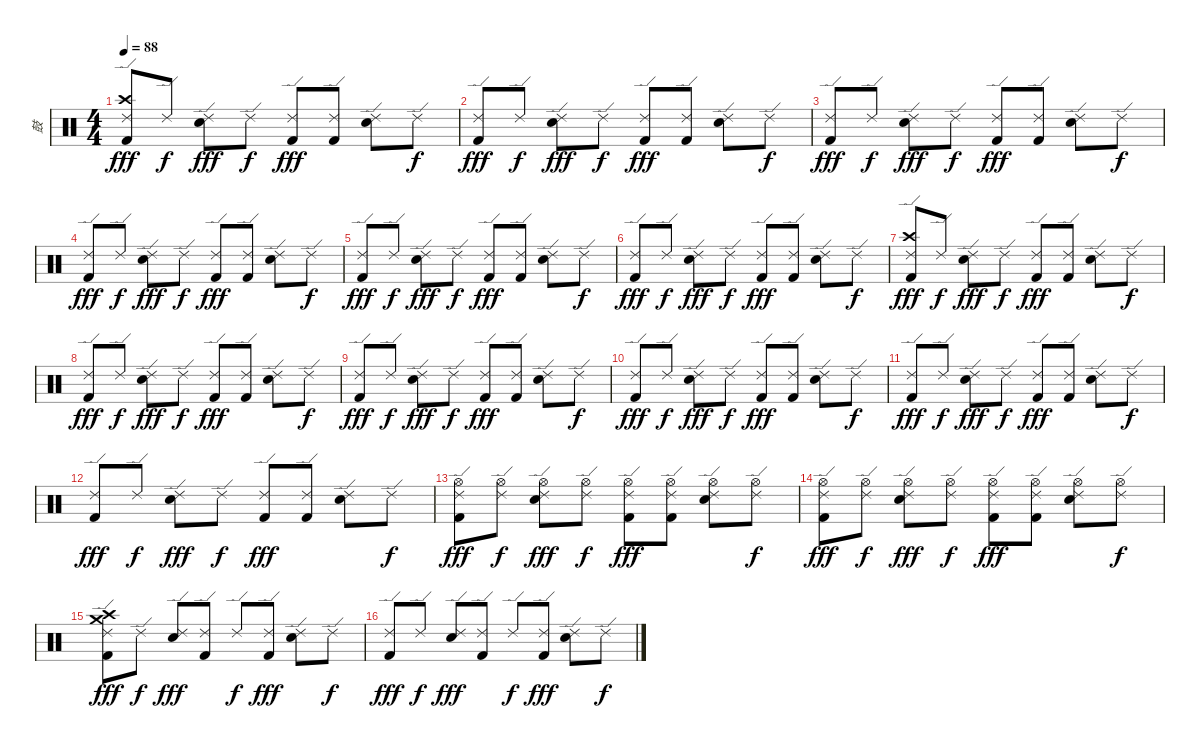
\track ("鼓" "鼓") {instrument percussion}
\staff {score}
\articulation defaults
\ts (4 4)
\tempo 88
\clef neutral
\ks c
("Ride (edge) 2" "Crash high (hit)" "Kick (hit) 2").8{dy fff} "Ride (edge) 2".8{dy f} ("Ride (edge) 2" "Snare (hit) 2").8{dy fff} "Ride (edge) 2".8{dy f} ("Ride (edge) 2" "Kick (hit) 2").8{dy fff} ("Ride (edge) 2" "Kick (hit) 2").8 ("Ride (edge) 2" "Snare (hit) 2").8 "Ride (edge) 2".8{dy f} |
("Ride (edge) 2" "Kick (hit) 2").8{dy fff} "Ride (edge) 2".8{dy f} ("Ride (edge) 2" "Snare (hit) 2").8{dy fff} "Ride (edge) 2".8{dy f} ("Ride (edge) 2" "Kick (hit) 2").8{dy fff} ("Ride (edge) 2" "Kick (hit) 2").8 ("Ride (edge) 2" "Snare (hit) 2").8 "Ride (edge) 2".8{dy f} |
("Ride (edge) 2" "Kick (hit) 2").8{dy fff} "Ride (edge) 2".8{dy f} ("Ride (edge) 2" "Snare (hit) 2").8{dy fff} "Ride (edge) 2".8{dy f} ("Ride (edge) 2" "Kick (hit) 2").8{dy fff} ("Ride (edge) 2" "Kick (hit) 2").8 ("Ride (edge) 2" "Snare (hit) 2").8 "Ride (edge) 2".8{dy f} |
("Ride (edge) 2" "Kick (hit) 2").8{dy fff} "Ride (edge) 2".8{dy f} ("Ride (edge) 2" "Snare (hit) 2").8{dy fff} "Ride (edge) 2".8{dy f} ("Ride (edge) 2" "Kick (hit) 2").8{dy fff} ("Ride (edge) 2" "Kick (hit) 2").8 ("Ride (edge) 2" "Snare (hit) 2").8 "Ride (edge) 2".8{dy f} |
("Ride (edge) 2" "Kick (hit) 2").8{dy fff} "Ride (edge) 2".8{dy f} ("Ride (edge) 2" "Snare (hit) 2").8{dy fff} "Ride (edge) 2".8{dy f} ("Ride (edge) 2" "Kick (hit) 2").8{dy fff} ("Ride (edge) 2" "Kick (hit) 2").8 ("Ride (edge) 2" "Snare (hit) 2").8 "Ride (edge) 2".8{dy f} |
("Ride (edge) 2" "Kick (hit) 2").8{dy fff} "Ride (edge) 2".8{dy f} ("Ride (edge) 2" "Snare (hit) 2").8{dy fff} "Ride (edge) 2".8{dy f} ("Ride (edge) 2" "Kick (hit) 2").8{dy fff} ("Ride (edge) 2" "Kick (hit) 2").8 ("Ride (edge) 2" "Snare (hit) 2").8 "Ride (edge) 2".8{dy f} |
("Ride (edge) 2" "Crash high (hit)" "Kick (hit) 2").8{dy fff} "Ride (edge) 2".8{dy f} ("Ride (edge) 2" "Snare (hit) 2").8{dy fff} "Ride (edge) 2".8{dy f} ("Ride (edge) 2" "Kick (hit) 2").8{dy fff} ("Ride (edge) 2" "Kick (hit) 2").8 ("Ride (edge) 2" "Snare (hit) 2").8 "Ride (edge) 2".8{dy f} |
("Ride (edge) 2" "Kick (hit) 2").8{dy fff} "Ride (edge) 2".8{dy f} ("Ride (edge) 2" "Snare (hit) 2").8{dy fff} "Ride (edge) 2".8{dy f} ("Ride (edge) 2" "Kick (hit) 2").8{dy fff} ("Ride (edge) 2" "Kick (hit) 2").8 ("Ride (edge) 2" "Snare (hit) 2").8 "Ride (edge) 2".8{dy f} |
("Ride (edge) 2" "Kick (hit) 2").8{dy fff} "Ride (edge) 2".8{dy f} ("Ride (edge) 2" "Snare (hit) 2").8{dy fff} "Ride (edge) 2".8{dy f} ("Ride (edge) 2" "Kick (hit) 2").8{dy fff} ("Ride (edge) 2" "Kick (hit) 2").8 ("Ride (edge) 2" "Snare (hit) 2").8 "Ride (edge) 2".8{dy f} |
("Ride (edge) 2" "Kick (hit) 2").8{dy fff} "Ride (edge) 2".8{dy f} ("Ride (edge) 2" "Snare (hit) 2").8{dy fff} "Ride (edge) 2".8{dy f} ("Ride (edge) 2" "Kick (hit) 2").8{dy fff} ("Ride (edge) 2" "Kick (hit) 2").8 ("Ride (edge) 2" "Snare (hit) 2").8 "Ride (edge) 2".8{dy f} |
("Ride (edge) 2" "Kick (hit) 2").8{dy fff} "Ride (edge) 2".8{dy f} ("Ride (edge) 2" "Snare (hit) 2").8{dy fff} "Ride (edge) 2".8{dy f} ("Ride (edge) 2" "Kick (hit) 2").8{dy fff} ("Ride (edge) 2" "Kick (hit) 2").8 ("Ride (edge) 2" "Snare (hit) 2").8 "Ride (edge) 2".8{dy f} |
("Ride (edge) 2" "Kick (hit) 2").8{dy fff} "Ride (edge) 2".8{dy f} ("Ride (edge) 2" "Snare (hit) 2").8{dy fff} "Ride (edge) 2".8{dy f} ("Ride (edge) 2" "Kick (hit) 2").8{dy fff} ("Ride (edge) 2" "Kick (hit) 2").8 ("Ride (edge) 2" "Snare (hit) 2").8 "Ride (edge) 2".8{dy f} |
("Ride (edge) 2" "Hi-Hat (open)" "Kick (hit) 2").8{dy fff} ("Ride (edge) 2" "Hi-Hat (open)").8{dy f} ("Ride (edge) 2" "Hi-Hat (open)" "Snare (hit) 2").8{dy fff} ("Ride (edge) 2" "Hi-Hat (open)").8{dy f} ("Ride (edge) 2" "Hi-Hat (open)" "Kick (hit) 2").8{dy fff} ("Ride (edge) 2" "Hi-Hat (open)" "Kick (hit) 2").8 ("Ride (edge) 2" "Hi-Hat (open)" "Snare (hit) 2").8 ("Ride (edge) 2" "Hi-Hat (open)").8{dy f} |
("Ride (edge) 2" "Hi-Hat (open)" "Kick (hit) 2").8{dy fff} ("Ride (edge) 2" "Hi-Hat (open)").8{dy f} ("Ride (edge) 2" "Hi-Hat (open)" "Snare (hit) 2").8{dy fff} ("Ride (edge) 2" "Hi-Hat (open)").8{dy f} ("Ride (edge) 2" "Hi-Hat (open)" "Kick (hit) 2").8{dy fff} ("Ride (edge) 2" "Hi-Hat (open)" "Kick (hit) 2").8 ("Ride (edge) 2" "Hi-Hat (open)" "Snare (hit) 2").8 ("Ride (edge) 2" "Hi-Hat (open)").8{dy f} |
("Crash high (hit)" "Ride (edge) 2" "Crash medium (hit)" "Kick (hit) 2").8{dy fff} "Ride (edge) 2".8{dy f} ("Ride (edge) 2" "Snare (hit) 2").8{dy fff} ("Ride (edge) 2" "Kick (hit) 2").8 "Ride (edge) 2".8{dy f} ("Ride (edge) 2" "Kick (hit) 2").8{dy fff} ("Ride (edge) 2" "Snare (hit) 2").8 "Ride (edge) 2".8{dy f} |
("Ride (edge) 2" "Kick (hit) 2").8{dy fff} "Ride (edge) 2".8{dy f} ("Ride (edge) 2" "Snare (hit) 2").8{dy fff} ("Ride (edge) 2" "Kick (hit) 2").8 "Ride (edge) 2".8{dy f} ("Ride (edge) 2" "Kick (hit) 2").8{dy fff} ("Ride (edge) 2" "Snare (hit) 2").8 "Ride (edge) 2".8{dy f}
